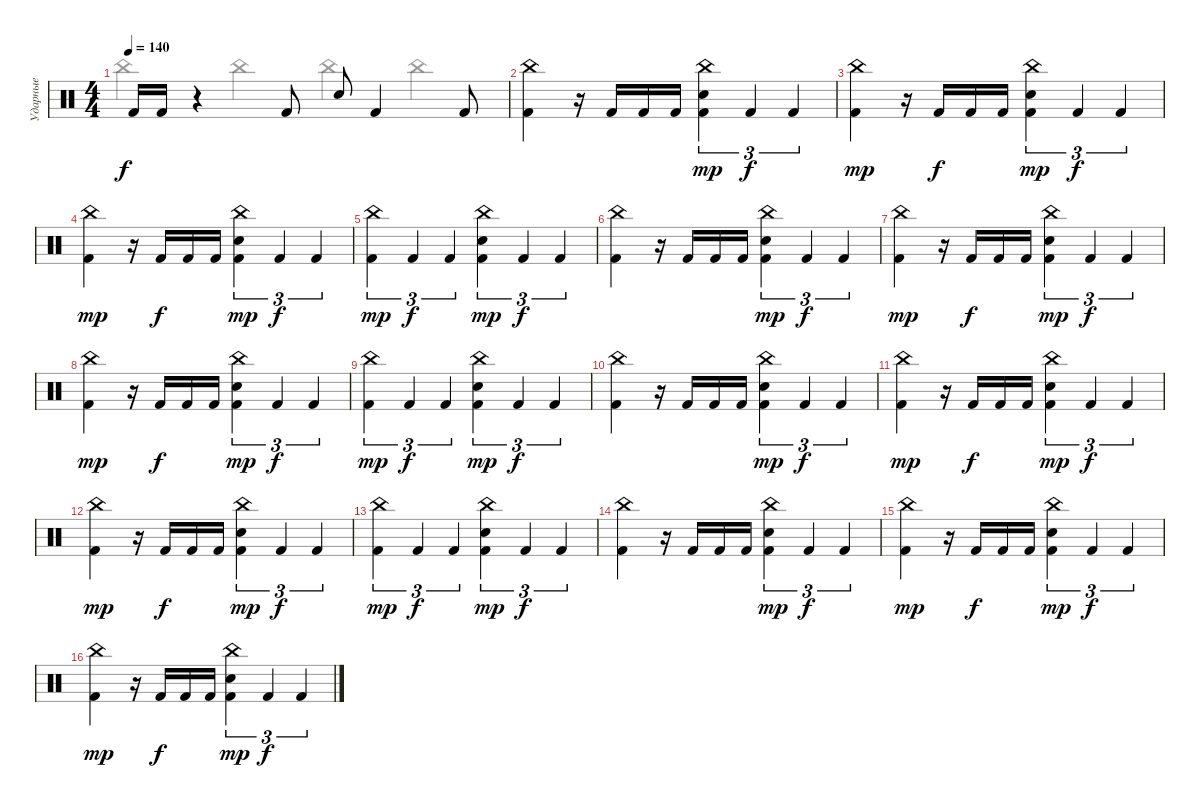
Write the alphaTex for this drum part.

\track ("Ударные" "Ударные") {instrument percussion}
\staff {score}
\articulation defaults
\voice
\ts (4 4)
\tempo 140
\clef neutral
\ks c "Kick (hit) 2".16{dy f} "Kick (hit) 2".16
r.4 "Kick (hit) 2".8 "Electric Snare (hit)".8 "Kick (hit) 2".4 "Kick (hit) 2".8 |
("Kick (hit) 2" "China (hit)").4 r.16 "Kick (hit) 2".16 "Kick (hit) 2".16 "Kick (hit) 2".16 ("China (hit)" "Kick (hit) 2" "Electric Snare (hit)").4{tu (3 2) dy mp} "Kick (hit) 2".4{tu (3 2) dy f} "Kick (hit) 2".4{tu (3 2)} |
("Kick (hit) 2" "China (hit)").4{dy mp} r.16 "Kick (hit) 2".16{dy f} "Kick (hit) 2".16 "Kick (hit) 2".16 ("China (hit)" "Kick (hit) 2" "Electric Snare (hit)").4{tu (3 2) dy mp} "Kick (hit) 2".4{tu (3 2) dy f} "Kick (hit) 2".4{tu (3 2)} |
("Kick (hit) 2" "China (hit)").4{dy mp} r.16 "Kick (hit) 2".16{dy f} "Kick (hit) 2".16 "Kick (hit) 2".16 ("China (hit)" "Kick (hit) 2" "Electric Snare (hit)").4{tu (3 2) dy mp} "Kick (hit) 2".4{tu (3 2) dy f} "Kick (hit) 2".4{tu (3 2)} |
("China (hit)" "Kick (hit) 2").4{tu (3 2) dy mp} "Kick (hit) 2".4{tu (3 2) dy f} "Kick (hit) 2".4{tu (3 2)} ("China (hit)" "Kick (hit) 2" "Electric Snare (hit)").4{tu (3 2) dy mp} "Kick (hit) 2".4{tu (3 2) dy f} "Kick (hit) 2".4{tu (3 2)} |
("Kick (hit) 2" "China (hit)").4 r.16 "Kick (hit) 2".16 "Kick (hit) 2".16 "Kick (hit) 2".16 ("China (hit)" "Kick (hit) 2" "Electric Snare (hit)").4{tu (3 2) dy mp} "Kick (hit) 2".4{tu (3 2) dy f} "Kick (hit) 2".4{tu (3 2)} |
("Kick (hit) 2" "China (hit)").4{dy mp} r.16 "Kick (hit) 2".16{dy f} "Kick (hit) 2".16 "Kick (hit) 2".16 ("China (hit)" "Kick (hit) 2" "Electric Snare (hit)").4{tu (3 2) dy mp} "Kick (hit) 2".4{tu (3 2) dy f} "Kick (hit) 2".4{tu (3 2)} |
("Kick (hit) 2" "China (hit)").4{dy mp} r.16 "Kick (hit) 2".16{dy f} "Kick (hit) 2".16 "Kick (hit) 2".16 ("China (hit)" "Kick (hit) 2" "Electric Snare (hit)").4{tu (3 2) dy mp} "Kick (hit) 2".4{tu (3 2) dy f} "Kick (hit) 2".4{tu (3 2)} |
("China (hit)" "Kick (hit) 2").4{tu (3 2) dy mp} "Kick (hit) 2".4{tu (3 2) dy f} "Kick (hit) 2".4{tu (3 2)} ("China (hit)" "Kick (hit) 2" "Electric Snare (hit)").4{tu (3 2) dy mp} "Kick (hit) 2".4{tu (3 2) dy f} "Kick (hit) 2".4{tu (3 2)} |
("Kick (hit) 2" "China (hit)").4 r.16 "Kick (hit) 2".16 "Kick (hit) 2".16 "Kick (hit) 2".16 ("China (hit)" "Kick (hit) 2" "Electric Snare (hit)").4{tu (3 2) dy mp} "Kick (hit) 2".4{tu (3 2) dy f} "Kick (hit) 2".4{tu (3 2)} |
("Kick (hit) 2" "China (hit)").4{dy mp} r.16 "Kick (hit) 2".16{dy f} "Kick (hit) 2".16 "Kick (hit) 2".16 ("China (hit)" "Kick (hit) 2" "Electric Snare (hit)").4{tu (3 2) dy mp} "Kick (hit) 2".4{tu (3 2) dy f} "Kick (hit) 2".4{tu (3 2)} |
("Kick (hit) 2" "China (hit)").4{dy mp} r.16 "Kick (hit) 2".16{dy f} "Kick (hit) 2".16 "Kick (hit) 2".16 ("China (hit)" "Kick (hit) 2" "Electric Snare (hit)").4{tu (3 2) dy mp} "Kick (hit) 2".4{tu (3 2) dy f} "Kick (hit) 2".4{tu (3 2)} |
("China (hit)" "Kick (hit) 2").4{tu (3 2) dy mp} "Kick (hit) 2".4{tu (3 2) dy f} "Kick (hit) 2".4{tu (3 2)} ("China (hit)" "Kick (hit) 2" "Electric Snare (hit)").4{tu (3 2) dy mp} "Kick (hit) 2".4{tu (3 2) dy f} "Kick (hit) 2".4{tu (3 2)} |
("Kick (hit) 2" "China (hit)").4 r.16 "Kick (hit) 2".16 "Kick (hit) 2".16 "Kick (hit) 2".16 ("China (hit)" "Kick (hit) 2" "Electric Snare (hit)").4{tu (3 2) dy mp} "Kick (hit) 2".4{tu (3 2) dy f} "Kick (hit) 2".4{tu (3 2)} |
("Kick (hit) 2" "China (hit)").4{dy mp} r.16 "Kick (hit) 2".16{dy f} "Kick (hit) 2".16 "Kick (hit) 2".16 ("China (hit)" "Kick (hit) 2" "Electric Snare (hit)").4{tu (3 2) dy mp} "Kick (hit) 2".4{tu (3 2) dy f} "Kick (hit) 2".4{tu (3 2)} |
("Kick (hit) 2" "China (hit)").4{dy mp} r.16 "Kick (hit) 2".16{dy f} "Kick (hit) 2".16 "Kick (hit) 2".16 ("China (hit)" "Kick (hit) 2" "Electric Snare (hit)").4{tu (3 2) dy mp} "Kick (hit) 2".4{tu (3 2) dy f} "Kick (hit) 2".4{tu (3 2)}
\voice
\clef neutral
\ottava regular
\simile none
\ks c "China (hit)".4{dy f} "China (hit)".4 "China (hit)".4 "China (hit)".4
|
|
|
|
|
|
|
|
|
|
|
|
|
|
|
